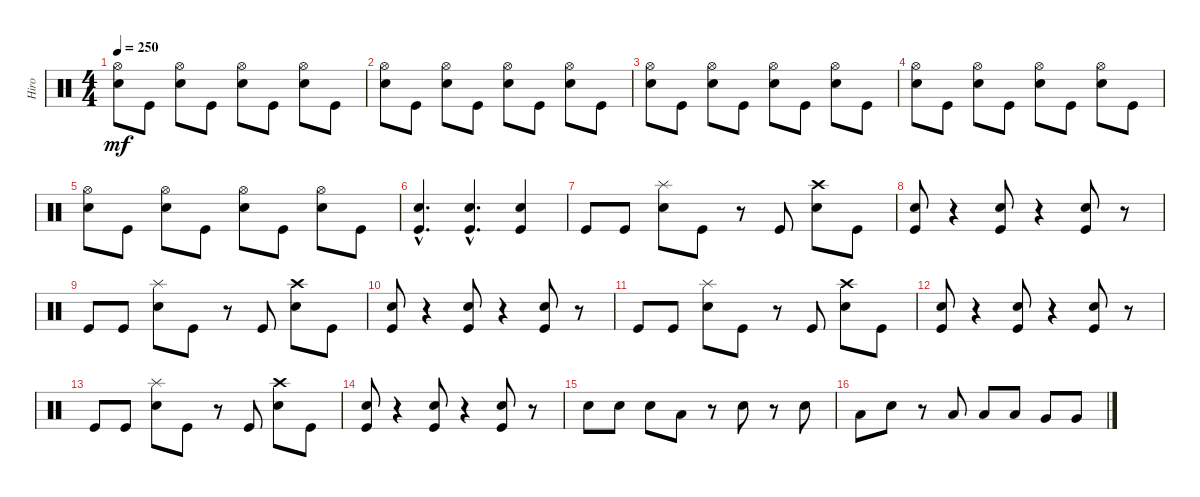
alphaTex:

\track ("Hiro" "Hiro") {instrument percussion}
\staff {score}
\articulation defaults
\ts (4 4)
\tempo 250
\clef neutral
\ks c
("Hi-Hat (open)" "Electric Snare (hit)").8{dy mf} "Kick (hit)".8 ("Hi-Hat (open)" "Electric Snare (hit)").8 "Kick (hit)".8 ("Hi-Hat (open)" "Electric Snare (hit)").8 "Kick (hit)".8 ("Hi-Hat (open)" "Electric Snare (hit)").8 "Kick (hit)".8 |
("Hi-Hat (open)" "Electric Snare (hit)").8 "Kick (hit)".8 ("Hi-Hat (open)" "Electric Snare (hit)").8 "Kick (hit)".8 ("Hi-Hat (open)" "Electric Snare (hit)").8 "Kick (hit)".8 ("Hi-Hat (open)" "Electric Snare (hit)").8 "Kick (hit)".8 |
("Electric Snare (hit)" "Hi-Hat (open)").8 "Kick (hit)".8 ("Electric Snare (hit)" "Hi-Hat (open)").8 "Kick (hit)".8 ("Electric Snare (hit)" "Hi-Hat (open)").8 "Kick (hit)".8 ("Electric Snare (hit)" "Hi-Hat (open)").8 "Kick (hit)".8 |
("Electric Snare (hit)" "Hi-Hat (open)").8 "Kick (hit)".8 ("Electric Snare (hit)" "Hi-Hat (open)").8 "Kick (hit)".8 ("Electric Snare (hit)" "Hi-Hat (open)").8 "Kick (hit)".8 ("Electric Snare (hit)" "Hi-Hat (open)").8 "Kick (hit)".8 |
("Hi-Hat (open)" "Electric Snare (hit)").8 "Kick (hit)".8 ("Hi-Hat (open)" "Electric Snare (hit)").8 "Kick (hit)".8 ("Hi-Hat (open)" "Electric Snare (hit)").8 "Kick (hit)".8 ("Hi-Hat (open)" "Electric Snare (hit)").8 "Kick (hit)".8 |
("Kick (hit)" "Electric Snare (hit)"{hac}).4{d} ("Kick (hit)" "Electric Snare (hit)"{hac}).4{d} ("Kick (hit)" "Electric Snare (hit)").4 |
"Kick (hit)".8 "Kick (hit)".8 ("Splash (hit)" "Electric Snare (hit)").8 "Kick (hit)".8 r.8 "Kick (hit)".8 ("Crash high (hit)" "Electric Snare (hit)").8 "Kick (hit)".8 |
("Kick (hit)" "Electric Snare (hit)").8 r.4 ("Kick (hit)" "Electric Snare (hit)").8 r.4 ("Kick (hit)" "Electric Snare (hit)").8 r.8 |
"Kick (hit)".8 "Kick (hit)".8 ("Electric Snare (hit)" "Splash (hit)").8 "Kick (hit)".8 r.8 "Kick (hit)".8 ("Electric Snare (hit)" "Crash high (hit)").8 "Kick (hit)".8 |
("Electric Snare (hit)" "Kick (hit)").8 r.4 ("Electric Snare (hit)" "Kick (hit)").8 r.4 ("Electric Snare (hit)" "Kick (hit)").8 r.8 |
"Kick (hit)".8 "Kick (hit)".8 ("Electric Snare (hit)" "Splash (hit)").8 "Kick (hit)".8 r.8 "Kick (hit)".8 ("Electric Snare (hit)" "Crash high (hit)").8 "Kick (hit)".8 |
("Electric Snare (hit)" "Kick (hit)").8 r.4 ("Electric Snare (hit)" "Kick (hit)").8 r.4 ("Electric Snare (hit)" "Kick (hit)").8 r.8 |
"Kick (hit)".8 "Kick (hit)".8 ("Electric Snare (hit)" "Splash (hit)").8 "Kick (hit)".8 r.8 "Kick (hit)".8 ("Electric Snare (hit)" "Crash high (hit)").8 "Kick (hit)".8 |
("Electric Snare (hit)" "Kick (hit)").8 r.4 ("Electric Snare (hit)" "Kick (hit)").8 r.4 ("Electric Snare (hit)" "Kick (hit)").8 r.8 |
"Electric Snare (hit)".8 "Electric Snare (hit)".8 "Electric Snare (hit)".8 "Low Tom (hit)".8 r.8 "Electric Snare (hit)".8 r.8 "Electric Snare (hit)".8 |
"Low Tom (hit)".8 "Electric Snare (hit)".8 r.8 "Low Tom (hit)".8 "Low Tom (hit)".8 "Low Tom (hit)".8 "Very Low Tom (hit)".8 "Very Low Tom (hit)".8
